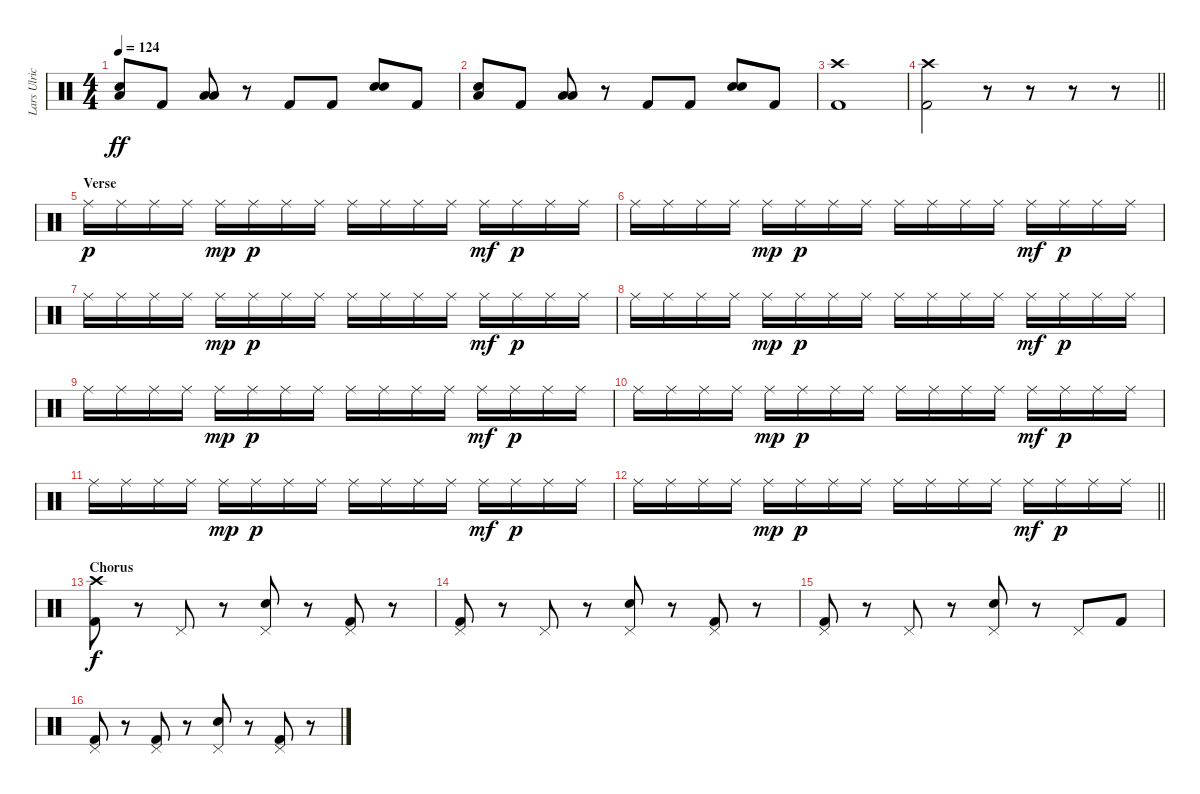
\track ("Lars Ulrich" "Lars Ulric") {instrument percussion}
\staff {score}
\articulation defaults
\ts (4 4)
\tempo 124
\clef neutral
\ks c
("Electric Snare (hit)" "Low Tom (hit)").8{dy ff} "Kick (hit) 2".8 ("Low Tom (hit)" "Low Tom (hit)").8 r.8 "Kick (hit) 2".8 "Kick (hit) 2".8 ("Electric Snare (hit)" "Electric Snare (hit)").8{bd 240} "Kick (hit) 2".8 |
("Electric Snare (hit)" "Low Tom (hit)").8 "Kick (hit) 2".8 ("Low Tom (hit)" "Low Tom (hit)").8 r.8 "Kick (hit) 2".8 "Kick (hit) 2".8 ("Electric Snare (hit)" "Electric Snare (hit)").8{bd 240} "Kick (hit) 2".8 |
("Crash high (hit)" "Kick (hit) 2").1 |
\barLineRight lightlight
("Crash high (hit)" "Kick (hit) 2").2 r.8 r.8 r.8 r.8 |
\section ("" "Verse")
"Ride (middle)".16{dy p} "Ride (middle)".16 "Ride (middle)".16 "Ride (middle)".16 "Ride (middle)".16{dy mp} "Ride (middle)".16{dy p} "Ride (middle)".16 "Ride (middle)".16 "Ride (middle)".16 "Ride (middle)".16 "Ride (middle)".16 "Ride (middle)".16 "Ride (middle)".16{dy mf} "Ride (middle)".16{dy p} "Ride (middle)".16 "Ride (middle)".16 |
"Ride (middle)".16 "Ride (middle)".16 "Ride (middle)".16 "Ride (middle)".16 "Ride (middle)".16{dy mp} "Ride (middle)".16{dy p} "Ride (middle)".16 "Ride (middle)".16 "Ride (middle)".16 "Ride (middle)".16 "Ride (middle)".16 "Ride (middle)".16 "Ride (middle)".16{dy mf} "Ride (middle)".16{dy p} "Ride (middle)".16 "Ride (middle)".16 |
"Ride (middle)".16 "Ride (middle)".16 "Ride (middle)".16 "Ride (middle)".16 "Ride (middle)".16{dy mp} "Ride (middle)".16{dy p} "Ride (middle)".16 "Ride (middle)".16 "Ride (middle)".16 "Ride (middle)".16 "Ride (middle)".16 "Ride (middle)".16 "Ride (middle)".16{dy mf} "Ride (middle)".16{dy p} "Ride (middle)".16 "Ride (middle)".16 |
"Ride (middle)".16 "Ride (middle)".16 "Ride (middle)".16 "Ride (middle)".16 "Ride (middle)".16{dy mp} "Ride (middle)".16{dy p} "Ride (middle)".16 "Ride (middle)".16 "Ride (middle)".16 "Ride (middle)".16 "Ride (middle)".16 "Ride (middle)".16 "Ride (middle)".16{dy mf} "Ride (middle)".16{dy p} "Ride (middle)".16 "Ride (middle)".16 |
"Ride (middle)".16 "Ride (middle)".16 "Ride (middle)".16 "Ride (middle)".16 "Ride (middle)".16{dy mp} "Ride (middle)".16{dy p} "Ride (middle)".16 "Ride (middle)".16 "Ride (middle)".16 "Ride (middle)".16 "Ride (middle)".16 "Ride (middle)".16 "Ride (middle)".16{dy mf} "Ride (middle)".16{dy p} "Ride (middle)".16 "Ride (middle)".16 |
"Ride (middle)".16 "Ride (middle)".16 "Ride (middle)".16 "Ride (middle)".16 "Ride (middle)".16{dy mp} "Ride (middle)".16{dy p} "Ride (middle)".16 "Ride (middle)".16 "Ride (middle)".16 "Ride (middle)".16 "Ride (middle)".16 "Ride (middle)".16 "Ride (middle)".16{dy mf} "Ride (middle)".16{dy p} "Ride (middle)".16 "Ride (middle)".16 |
"Ride (middle)".16 "Ride (middle)".16 "Ride (middle)".16 "Ride (middle)".16 "Ride (middle)".16{dy mp} "Ride (middle)".16{dy p} "Ride (middle)".16 "Ride (middle)".16 "Ride (middle)".16 "Ride (middle)".16 "Ride (middle)".16 "Ride (middle)".16 "Ride (middle)".16{dy mf} "Ride (middle)".16{dy p} "Ride (middle)".16 "Ride (middle)".16 |
\barLineRight lightlight "Ride (middle)".16 "Ride (middle)".16 "Ride (middle)".16 "Ride (middle)".16 "Ride (middle)".16{dy mp} "Ride (middle)".16{dy p} "Ride (middle)".16 "Ride (middle)".16 "Ride (middle)".16 "Ride (middle)".16 "Ride (middle)".16 "Ride (middle)".16 "Ride (middle)".16{dy mf} "Ride (middle)".16{dy p} "Ride (middle)".16 "Ride (middle)".16
|
\section ("" "Chorus")
("Crash high (hit)" "Kick (hit) 2").8{dy f} r.8 "Pedal Hi-Hat (hit)".8 r.8 ("Pedal Hi-Hat (hit)" "Electric Snare (hit)").8 r.8 ("Pedal Hi-Hat (hit)" "Kick (hit) 2").8 r.8 |
("Pedal Hi-Hat (hit)" "Kick (hit) 2").8 r.8 "Pedal Hi-Hat (hit)".8 r.8 ("Pedal Hi-Hat (hit)" "Electric Snare (hit)").8 r.8 ("Pedal Hi-Hat (hit)" "Kick (hit) 2").8 r.8 |
("Pedal Hi-Hat (hit)" "Kick (hit) 2").8 r.8 "Pedal Hi-Hat (hit)".8 r.8 ("Pedal Hi-Hat (hit)" "Electric Snare (hit)").8 r.8 "Pedal Hi-Hat (hit)".8 "Kick (hit) 2".8 |
("Pedal Hi-Hat (hit)" "Kick (hit) 2").8 r.8 ("Pedal Hi-Hat (hit)" "Kick (hit) 2").8 r.8 ("Pedal Hi-Hat (hit)" "Electric Snare (hit)").8 r.8 ("Pedal Hi-Hat (hit)" "Kick (hit) 2").8 r.8
